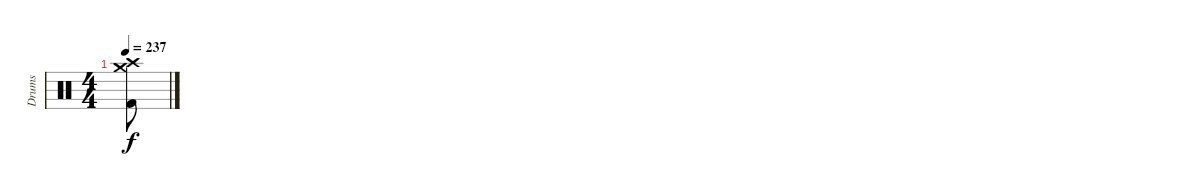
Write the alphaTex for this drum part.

\track ("Drums" "Drums") {instrument percussion}
\staff {score}
\articulation defaults
\ts (4 4)
\tempo 237
\clef neutral
\ks c
("Crash medium (hit)" "Crash high (hit)" "Kick (hit) 2").8{dy f}
